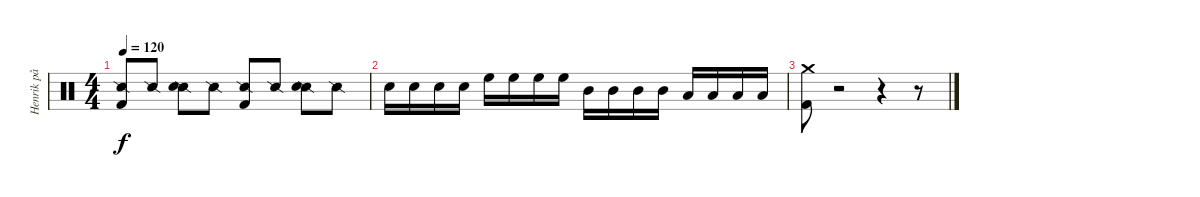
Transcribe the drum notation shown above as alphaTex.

\track ("Henrik på trommer" "Henrik på ") {instrument percussion}
\staff {score}
\articulation defaults
\ts (4 4)
\tempo 120
\clef neutral
\ks c
("Snare (side stick) 2" "Kick (hit) 2").8{dy f} "Snare (side stick) 2".8 ("Snare (side stick) 2" "Electric Snare (hit)").8 "Snare (side stick) 2".8 ("Snare (side stick) 2" "Kick (hit) 2").8 "Snare (side stick) 2".8 ("Snare (side stick) 2" "Electric Snare (hit)").8 "Snare (side stick) 2".8 |
"Electric Snare (hit)".16 "Electric Snare (hit)".16 "Electric Snare (hit)".16 "Electric Snare (hit)".16 "High Floor Tom (hit)".16 "High Floor Tom (hit)".16 "High Floor Tom (hit)".16 "High Floor Tom (hit)".16 "Mid Tom (hit)".16 "Mid Tom (hit)".16 "Mid Tom (hit)".16 "Mid Tom (hit)".16 "Low Tom (hit)".16 "Low Tom (hit)".16 "Low Tom (hit)".16 "Low Tom (hit)".16 |
("Crash medium (hit)" "Kick (hit) 2").8 r.2 r.4 r.8
